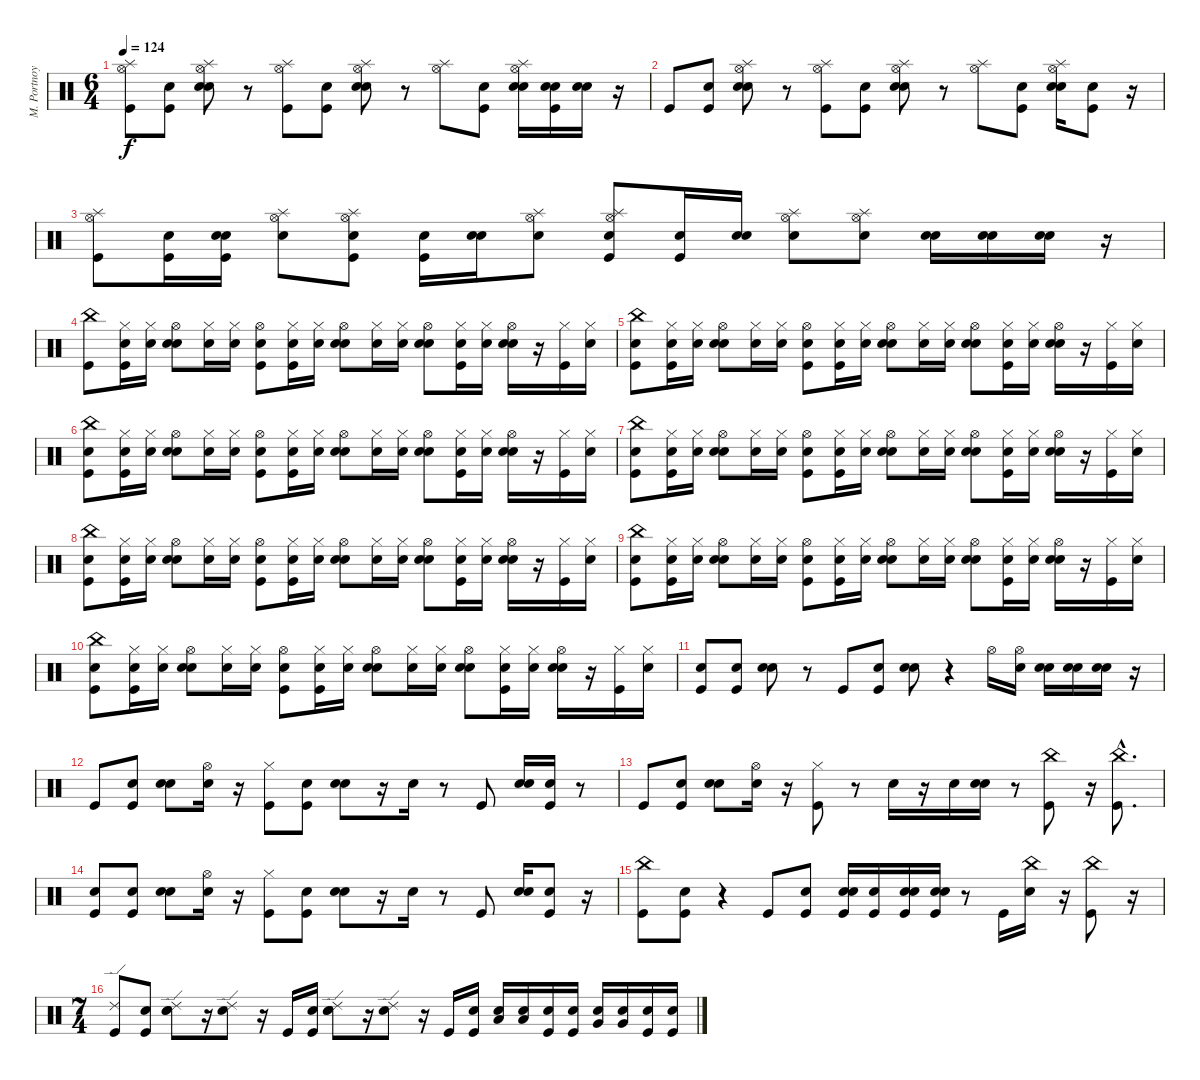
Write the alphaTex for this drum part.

\track ("M. Portnoy" "M. Portnoy") {instrument percussion}
\staff {score}
\articulation defaults
\ts (6 4)
\tempo 124
\clef neutral
\ks c
("Kick (hit)" "Hi-Hat (open)" "Splash (hit)").8{dy f} ("Snare (hit)" "Kick (hit)").8 ("Snare (hit)" "Snare (hit) 2" "Hi-Hat (open)" "Splash (hit)").8 r.8 ("Kick (hit)" "Hi-Hat (open)" "Splash (hit)").8 ("Snare (hit)" "Kick (hit)").8 ("Snare (hit)" "Snare (hit) 2" "Hi-Hat (open)" "Splash (hit)").8 r.8 ("Hi-Hat (open)" "Splash (hit)").8 ("Snare (hit)" "Kick (hit)").8 ("Snare (hit)" "Snare (hit) 2" "Hi-Hat (open)" "Splash (hit)").16 ("Snare (hit)" "Kick (hit)" "Snare (hit) 2").16 ("Snare (hit)" "Snare (hit) 2").16 r.16 |
"Kick (hit)".8 ("Snare (hit)" "Kick (hit)").8 ("Snare (hit)" "Snare (hit) 2" "Hi-Hat (open)" "Splash (hit)").8 r.8 ("Kick (hit)" "Hi-Hat (open)" "Splash (hit)").8 ("Snare (hit)" "Kick (hit)").8 ("Snare (hit)" "Snare (hit) 2" "Hi-Hat (open)" "Splash (hit)").8 r.8 ("Hi-Hat (open)" "Splash (hit)").8 ("Snare (hit)" "Kick (hit)").8 ("Snare (hit)" "Snare (hit) 2" "Hi-Hat (open)" "Splash (hit)").16 ("Snare (hit)" "Kick (hit)").8 r.16 |
("Kick (hit)" "Hi-Hat (open)" "Splash (hit)").8 ("Snare (hit)" "Kick (hit)").16 ("Snare (hit)" "Kick (hit)" "Snare (hit) 2").16 ("Snare (hit)" "Hi-Hat (open)" "Splash (hit)").8 ("Snare (hit)" "Kick (hit)" "Hi-Hat (open)" "Splash (hit)").8 ("Snare (hit)" "Kick (hit)").16 ("Snare (hit)" "Snare (hit) 2").16 ("Snare (hit)" "Hi-Hat (open)" "Splash (hit)").8 ("Snare (hit)" "Kick (hit)" "Hi-Hat (open)" "Splash (hit)").8 ("Snare (hit)" "Kick (hit)").16 ("Snare (hit)" "Snare (hit) 2").16 ("Snare (hit)" "Hi-Hat (open)" "Splash (hit)").8 ("Snare (hit)" "Hi-Hat (open)" "Splash (hit)").8 ("Snare (hit)" "Snare (hit) 2").16 ("Snare (hit)" "Snare (hit) 2").16 ("Snare (hit)" "Snare (hit) 2").16 r.16 |
("Kick (hit)" "China (hit)").8 ("Snare (hit)" "Kick (hit)" "Hi-Hat (closed)").16 ("Snare (hit)" "Hi-Hat (closed)").16 ("Snare (hit)" "Snare (hit) 2" "Hi-Hat (open)").8 ("Snare (hit)" "Hi-Hat (closed)").16 ("Snare (hit)" "Hi-Hat (closed)").16 ("Snare (hit)" "Kick (hit)" "Hi-Hat (open)").8 ("Snare (hit)" "Kick (hit)" "Hi-Hat (closed)").16 ("Snare (hit)" "Hi-Hat (closed)").16 ("Snare (hit)" "Snare (hit) 2" "Hi-Hat (open)").8 ("Snare (hit)" "Hi-Hat (closed)").16 ("Snare (hit)" "Hi-Hat (closed)").16 ("Snare (hit)" "Snare (hit) 2" "Hi-Hat (open)").8 ("Snare (hit)" "Kick (hit)" "Hi-Hat (closed)").16 ("Snare (hit)" "Hi-Hat (closed)").16 ("Snare (hit)" "Snare (hit) 2" "Hi-Hat (open)").16 r.16 ("Kick (hit)" "Hi-Hat (closed)").16 ("Snare (hit)" "Hi-Hat (closed)").16 |
("Snare (hit)" "Kick (hit)" "China (hit)").8 ("Snare (hit)" "Kick (hit)" "Hi-Hat (closed)").16 ("Snare (hit)" "Hi-Hat (closed)").16 ("Snare (hit)" "Snare (hit) 2" "Hi-Hat (open)").8 ("Snare (hit)" "Hi-Hat (closed)").16 ("Snare (hit)" "Hi-Hat (closed)").16 ("Snare (hit)" "Kick (hit)" "Hi-Hat (open)").8 ("Snare (hit)" "Kick (hit)" "Hi-Hat (closed)").16 ("Snare (hit)" "Hi-Hat (closed)").16 ("Snare (hit)" "Snare (hit) 2" "Hi-Hat (open)").8 ("Snare (hit)" "Hi-Hat (closed)").16 ("Snare (hit)" "Hi-Hat (closed)").16 ("Snare (hit)" "Snare (hit) 2" "Hi-Hat (open)").8 ("Snare (hit)" "Kick (hit)" "Hi-Hat (closed)").16 ("Snare (hit)" "Hi-Hat (closed)").16 ("Snare (hit)" "Snare (hit) 2" "Hi-Hat (open)").16 r.16 ("Kick (hit)" "Hi-Hat (closed)").16 ("Snare (hit)" "Hi-Hat (closed)").16 |
("Snare (hit)" "Kick (hit)" "China (hit)").8 ("Snare (hit)" "Kick (hit)" "Hi-Hat (closed)").16 ("Snare (hit)" "Hi-Hat (closed)").16 ("Snare (hit)" "Snare (hit) 2" "Hi-Hat (open)").8 ("Snare (hit)" "Hi-Hat (closed)").16 ("Snare (hit)" "Hi-Hat (closed)").16 ("Snare (hit)" "Kick (hit)" "Hi-Hat (open)").8 ("Snare (hit)" "Kick (hit)" "Hi-Hat (closed)").16 ("Snare (hit)" "Hi-Hat (closed)").16 ("Snare (hit)" "Snare (hit) 2" "Hi-Hat (open)").8 ("Snare (hit)" "Hi-Hat (closed)").16 ("Snare (hit)" "Hi-Hat (closed)").16 ("Snare (hit)" "Snare (hit) 2" "Hi-Hat (open)").8 ("Snare (hit)" "Kick (hit)" "Hi-Hat (closed)").16 ("Snare (hit)" "Hi-Hat (closed)").16 ("Snare (hit)" "Snare (hit) 2" "Hi-Hat (open)").16 r.16 ("Kick (hit)" "Hi-Hat (closed)").16 ("Snare (hit)" "Hi-Hat (closed)").16 |
("Snare (hit)" "Kick (hit)" "China (hit)").8 ("Snare (hit)" "Kick (hit)" "Hi-Hat (closed)").16 ("Snare (hit)" "Hi-Hat (closed)").16 ("Snare (hit)" "Snare (hit) 2" "Hi-Hat (open)").8 ("Snare (hit)" "Hi-Hat (closed)").16 ("Snare (hit)" "Hi-Hat (closed)").16 ("Snare (hit)" "Kick (hit)" "Hi-Hat (open)").8 ("Snare (hit)" "Kick (hit)" "Hi-Hat (closed)").16 ("Snare (hit)" "Hi-Hat (closed)").16 ("Snare (hit)" "Snare (hit) 2" "Hi-Hat (open)").8 ("Snare (hit)" "Hi-Hat (closed)").16 ("Snare (hit)" "Hi-Hat (closed)").16 ("Snare (hit)" "Snare (hit) 2" "Hi-Hat (open)").8 ("Snare (hit)" "Kick (hit)" "Hi-Hat (closed)").16 ("Snare (hit)" "Hi-Hat (closed)").16 ("Snare (hit)" "Snare (hit) 2" "Hi-Hat (open)").16 r.16 ("Kick (hit)" "Hi-Hat (closed)").16 ("Snare (hit)" "Hi-Hat (closed)").16 |
("Snare (hit)" "Kick (hit)" "China (hit)").8 ("Snare (hit)" "Kick (hit)" "Hi-Hat (closed)").16 ("Snare (hit)" "Hi-Hat (closed)").16 ("Snare (hit)" "Snare (hit) 2" "Hi-Hat (open)").8 ("Snare (hit)" "Hi-Hat (closed)").16 ("Snare (hit)" "Hi-Hat (closed)").16 ("Snare (hit)" "Kick (hit)" "Hi-Hat (open)").8 ("Snare (hit)" "Kick (hit)" "Hi-Hat (closed)").16 ("Snare (hit)" "Hi-Hat (closed)").16 ("Snare (hit)" "Snare (hit) 2" "Hi-Hat (open)").8 ("Snare (hit)" "Hi-Hat (closed)").16 ("Snare (hit)" "Hi-Hat (closed)").16 ("Snare (hit)" "Snare (hit) 2" "Hi-Hat (open)").8 ("Snare (hit)" "Kick (hit)" "Hi-Hat (closed)").16 ("Snare (hit)" "Hi-Hat (closed)").16 ("Snare (hit)" "Snare (hit) 2" "Hi-Hat (open)").16 r.16 ("Kick (hit)" "Hi-Hat (closed)").16 ("Snare (hit)" "Hi-Hat (closed)").16 |
("Snare (hit)" "Kick (hit)" "China (hit)").8 ("Snare (hit)" "Kick (hit)" "Hi-Hat (closed)").16 ("Snare (hit)" "Hi-Hat (closed)").16 ("Snare (hit)" "Snare (hit) 2" "Hi-Hat (open)").8 ("Snare (hit)" "Hi-Hat (closed)").16 ("Snare (hit)" "Hi-Hat (closed)").16 ("Snare (hit)" "Kick (hit)" "Hi-Hat (open)").8 ("Snare (hit)" "Kick (hit)" "Hi-Hat (closed)").16 ("Snare (hit)" "Hi-Hat (closed)").16 ("Snare (hit)" "Snare (hit) 2" "Hi-Hat (open)").8 ("Snare (hit)" "Hi-Hat (closed)").16 ("Snare (hit)" "Hi-Hat (closed)").16 ("Snare (hit)" "Snare (hit) 2" "Hi-Hat (open)").8 ("Snare (hit)" "Kick (hit)" "Hi-Hat (closed)").16 ("Snare (hit)" "Hi-Hat (closed)").16 ("Snare (hit)" "Snare (hit) 2" "Hi-Hat (open)").16 r.16 ("Kick (hit)" "Hi-Hat (closed)").16 ("Snare (hit)" "Hi-Hat (closed)").16 |
("Snare (hit)" "Kick (hit)" "China (hit)").8 ("Snare (hit)" "Kick (hit)" "Hi-Hat (closed)").16 ("Snare (hit)" "Hi-Hat (closed)").16 ("Snare (hit)" "Snare (hit) 2" "Hi-Hat (open)").8 ("Snare (hit)" "Hi-Hat (closed)").16 ("Snare (hit)" "Hi-Hat (closed)").16 ("Snare (hit)" "Kick (hit)" "Hi-Hat (open)").8 ("Snare (hit)" "Kick (hit)" "Hi-Hat (closed)").16 ("Snare (hit)" "Hi-Hat (closed)").16 ("Snare (hit)" "Snare (hit) 2" "Hi-Hat (open)").8 ("Snare (hit)" "Hi-Hat (closed)").16 ("Snare (hit)" "Hi-Hat (closed)").16 ("Snare (hit)" "Snare (hit) 2" "Hi-Hat (open)").8 ("Snare (hit)" "Kick (hit)" "Hi-Hat (closed)").16 ("Snare (hit)" "Hi-Hat (closed)").16 ("Snare (hit)" "Snare (hit) 2" "Hi-Hat (open)").16 r.16 ("Kick (hit)" "Hi-Hat (closed)").16 ("Snare (hit)" "Hi-Hat (closed)").16 |
("Snare (hit)" "Kick (hit)").8 ("Snare (hit)" "Kick (hit)").8 ("Snare (hit)" "Snare (hit) 2").8 r.8 "Kick (hit)".8 ("Snare (hit)" "Kick (hit)").8 ("Snare (hit)" "Snare (hit) 2").8 r.4 "Hi-Hat (open)".16 ("Snare (hit)" "Hi-Hat (open)").16 ("Snare (hit)" "Snare (hit) 2").16 ("Snare (hit)" "Snare (hit) 2").16 ("Snare (hit)" "Snare (hit) 2").16 r.16 |
"Kick (hit)".8 ("Snare (hit)" "Kick (hit)").8 ("Snare (hit)" "Snare (hit) 2").8 ("Snare (hit)" "Hi-Hat (open)").16 r.16 ("Kick (hit)" "Hi-Hat (closed)").8 ("Snare (hit)" "Kick (hit)").8 ("Snare (hit)" "Snare (hit) 2").8 r.16 "Snare (hit) 2".16 r.8 "Kick (hit)".8 ("Snare (hit)" "Snare (hit) 2").16 ("Snare (hit)" "Kick (hit)").16 r.8 |
"Kick (hit)".8 ("Snare (hit)" "Kick (hit)").8 ("Snare (hit)" "Snare (hit) 2").8 ("Snare (hit)" "Hi-Hat (open)").16 r.16 ("Kick (hit)" "Hi-Hat (closed)").8 r.8 "Snare (hit) 2".16 r.16 "Snare (hit) 2".16 ("Snare (hit)" "Snare (hit) 2").16 r.8 ("Kick (hit)" "China (hit)").8 r.16 ("Kick (hit)"{hac} "China (hit)"{hac}).8{d} |
("Snare (hit)" "Kick (hit)").8 ("Snare (hit)" "Kick (hit)").8 ("Snare (hit)" "Snare (hit) 2").8 ("Snare (hit)" "Hi-Hat (open)").16 r.16 ("Kick (hit)" "Hi-Hat (closed)").8 ("Snare (hit)" "Kick (hit)").8 ("Snare (hit)" "Snare (hit) 2").8 r.16 "Snare (hit) 2".16 r.8 "Kick (hit)".8 ("Snare (hit)" "Snare (hit) 2").16 ("Snare (hit)" "Kick (hit)").8 r.16 |
("Kick (hit)" "China (hit)").8 ("Snare (hit)" "Kick (hit)").8 r.4 "Kick (hit)".8 ("Snare (hit)" "Kick (hit)").8 ("Snare (hit)" "Kick (hit)" "Snare (hit) 2").16 ("Snare (hit)" "Kick (hit)").16 ("Snare (hit)" "Kick (hit)" "Snare (hit) 2").16 ("Snare (hit)" "Kick (hit)" "Snare (hit) 2").16 r.8 "Kick (hit)".16 ("Snare (hit)" "China (hit)").16 r.16 ("Kick (hit)" "China (hit)").8 r.16 |
\ts (7 4)
("Kick (hit)" "Ride (edge) 2").8 ("Snare (hit)" "Kick (hit)").8 ("Snare (hit)" "Snare (hit) 2" "Ride (edge) 2").8 r.16 ("Snare (hit) 2" "Ride (edge) 2").8 r.16 "Kick (hit)".16 ("Snare (hit)" "Kick (hit)").16 ("Snare (hit)" "Snare (hit) 2" "Ride (edge) 2").8 r.16 ("Snare (hit) 2" "Ride (edge) 2").8 r.16 "Kick (hit)".16 ("Snare (hit)" "Kick (hit)").16 ("Snare (hit)" "Low Tom (hit)").16 ("Snare (hit)" "Low Tom (hit)").16 ("Snare (hit)" "Kick (hit)").16 ("Snare (hit)" "Kick (hit)").16 ("Snare (hit)" "Very Low Tom (hit)").16 ("Snare (hit)" "Very Low Tom (hit)").16 ("Snare (hit)" "Kick (hit)").16 ("Snare (hit)" "Kick (hit)").16
